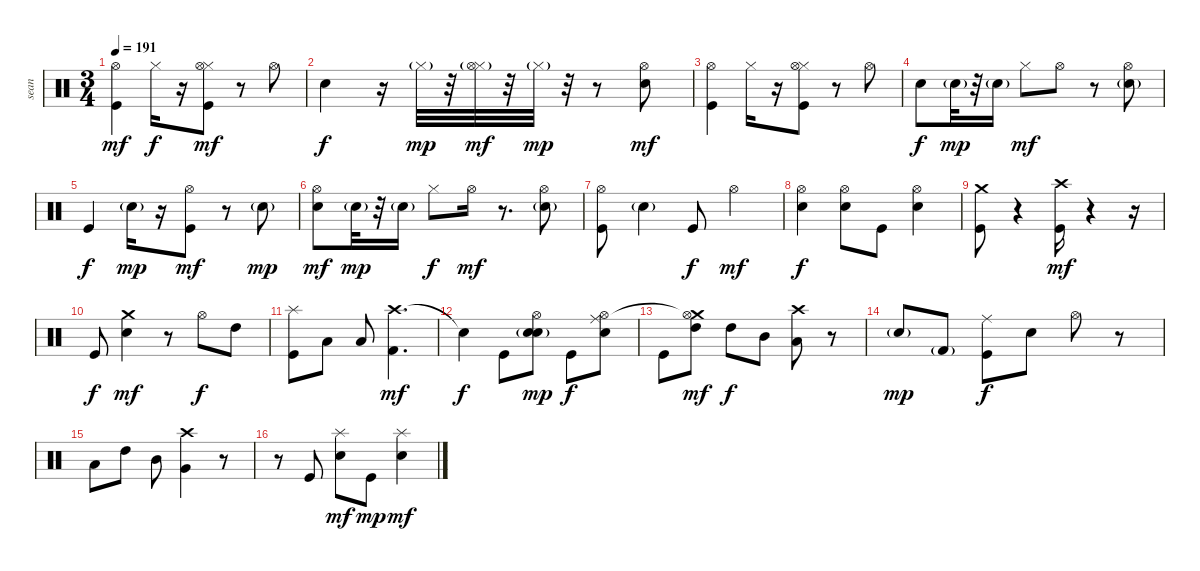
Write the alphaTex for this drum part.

\track ("sean" "sean") {instrument percussion}
\staff {score}
\articulation defaults
\ts (3 4)
\tempo 191
\clef neutral
\ks c
("Hi-Hat (open)" "Kick (hit)").4{dy mf} "Hi-Hat (closed)".16{dy f} r.16 ("Hi-Hat (closed)" "Kick (hit)" "Hi-Hat (open)").8{dy mf} r.8 "Hi-Hat (open)".8 |
"Electric Snare (hit)".4{dy f} r.16 "Hi-Hat (closed)"{g}.32{dy mp} r.32 ("Hi-Hat (closed)"{g} "Hi-Hat (open)").32{dy mf} r.32 "Hi-Hat (closed)"{g}.32{dy mp} r.32 r.8 ("Snare (hit)" "Hi-Hat (open)").8{dy mf} |
("Hi-Hat (open)" "Kick (hit)").4 "Hi-Hat (closed)".16 r.16 ("Hi-Hat (closed)" "Kick (hit)" "Hi-Hat (open)").8 r.8 "Hi-Hat (open)".8 |
"Electric Snare (hit)".8{dy f} "Electric Snare (hit)"{g}.32{dy mp} r.32 "Electric Snare (hit)"{g}.16 "Hi-Hat (closed)".8{dy mf} "Hi-Hat (open)".8 r.8 ("Electric Snare (hit)"{g} "Hi-Hat (open)").8 |
"Kick (hit)".4{dy f} "Electric Snare (hit)"{g}.16{dy mp} r.16 ("Hi-Hat (open)" "Kick (hit)").8{dy mf} r.8 "Electric Snare (hit)"{g}.8{dy mp} |
("Electric Snare (hit)" "Hi-Hat (open)").8{dy mf} "Electric Snare (hit)"{g}.32{dy mp} r.32 "Electric Snare (hit)"{g}.16 "Hi-Hat (closed)".8{dy f} "Hi-Hat (open)".16{dy mf} r.8{d} ("Electric Snare (hit)"{g} "Hi-Hat (open)").8 |
("Hi-Hat (open)" "Kick (hit)").8 "Electric Snare (hit)"{g}.4 "Kick (hit)".8{dy f} "Hi-Hat (open)".4{dy mf} |
("Hi-Hat (open)" "Electric Snare (hit)").4{dy f} ("Electric Snare (hit)" "Hi-Hat (open)").8 "Kick (hit)".8 ("Hi-Hat (open)" "Electric Snare (hit)").4 |
("Crash medium (hit)" "Kick (hit)").8 r.4 ("Crash high (hit)" "Kick (hit)").16{dy mf} r.4 r.16 |
"Kick (hit)".8{dy f} ("Crash medium (hit)" "Electric Snare (hit)").4{dy mf} r.8 "Hi-Hat (open)".8{dy f} "High Tom (hit)".8 |
("Splash (hit)" "Kick (hit)").8 "Low Tom (hit)".8 "Low Tom (hit)".8 ("Crash high (hit)" "Kick (hit) 2").4{d dy mf} |
"Snare (hit)"{t}.4{dy f} "Kick (hit)".8 ("Hi-Hat (open)" "Electric Snare (hit)"{g} "Electric Snare (hit)").8{dy mp} "Kick (hit)".8{dy f} ("Electric Snare (hit)" "Hi-Hat (open)" "Ride (middle)").8 |
"Kick (hit)".8 ("Crash medium (hit)" "High Tom (hit)" "Hi-Hat (open)"{t}).8{dy mf} "High Tom (hit)".8{dy f} "Mid Tom (hit)".8 ("Crash high (hit)" "Low Floor Tom (hit)").8 r.8 |
"Electric Snare (hit)"{g}.8{dy mp} "Kick (hit) 2"{g}.8 ("Kick (hit)" "Ride (middle)").8{dy f} "Electric Snare (hit)".8 "Hi-Hat (open)".8 r.8 |
"Low Floor Tom (hit)".8 "High Tom (hit)".8 "Mid Tom (hit)".8 ("Very Low Tom (hit)" "Crash high (hit)").4 r.8 |
r.8 "Kick (hit)".8 ("Splash (hit)" "Electric Snare (hit)").8{dy mf} "Kick (hit)".8{dy mp} ("Splash (hit)" "Electric Snare (hit)").4{dy mf}
